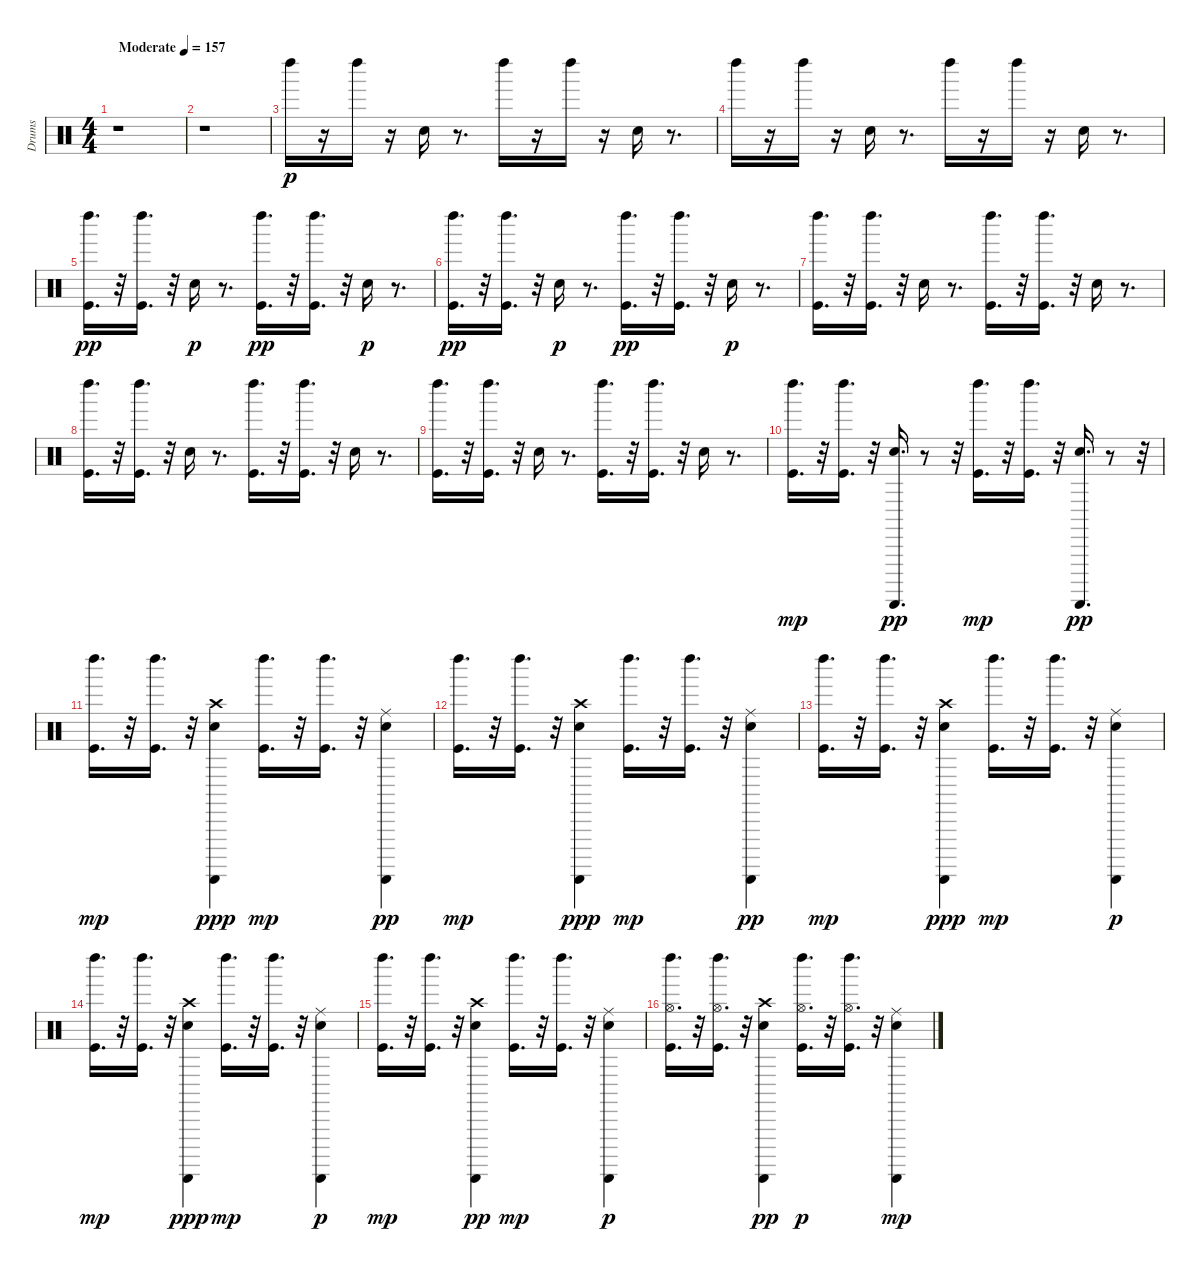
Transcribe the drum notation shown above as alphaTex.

\track ("Drums               " "Drums     ") {instrument percussion}
\staff {score}
\articulation defaults
\ts (4 4)
\tempo (157 "Moderate")
\clef neutral
\ks c
r.1{dy p} |
r.1 |
"Left Maraca (hit)".16 r.16 "Left Maraca (hit)".16 r.16 "Hand Clap (hit)".16 r.8{d} "Left Maraca (hit)".16 r.16 "Left Maraca (hit)".16 r.16 "Hand Clap (hit)".16 r.8{d} |
"Left Maraca (hit)".16 r.16 "Left Maraca (hit)".16 r.16 "Hand Clap (hit)".16 r.8{d} "Left Maraca (hit)".16 r.16 "Left Maraca (hit)".16 r.16 "Hand Clap (hit)".16 r.8{d} |
("Left Maraca (hit)" "Kick (hit)").16{d dy pp} r.32 ("Left Maraca (hit)" "Kick (hit)").16{d} r.32 "Hand Clap (hit)".16{dy p} r.8{d} ("Left Maraca (hit)" "Kick (hit)").16{d dy pp} r.32 ("Left Maraca (hit)" "Kick (hit)").16{d} r.32 "Hand Clap (hit)".16{dy p} r.8{d} |
("Left Maraca (hit)" "Kick (hit)").16{d dy pp} r.32 ("Left Maraca (hit)" "Kick (hit)").16{d} r.32 "Hand Clap (hit)".16{dy p} r.8{d} ("Left Maraca (hit)" "Kick (hit)").16{d dy pp} r.32 ("Left Maraca (hit)" "Kick (hit)").16{d} r.32 "Hand Clap (hit)".16{dy p} r.8{d} |
("Left Maraca (hit)" "Kick (hit)").16{d} r.32 ("Left Maraca (hit)" "Kick (hit)").16{d} r.32 "Hand Clap (hit)".16 r.8{d} ("Left Maraca (hit)" "Kick (hit)").16{d} r.32 ("Left Maraca (hit)" "Kick (hit)").16{d} r.32 "Hand Clap (hit)".16 r.8{d} |
("Left Maraca (hit)" "Kick (hit)").16{d} r.32 ("Left Maraca (hit)" "Kick (hit)").16{d} r.32 "Hand Clap (hit)".16 r.8{d} ("Left Maraca (hit)" "Kick (hit)").16{d} r.32 ("Left Maraca (hit)" "Kick (hit)").16{d} r.32 "Hand Clap (hit)".16 r.8{d} |
("Left Maraca (hit)" "Kick (hit)").16{d} r.32 ("Left Maraca (hit)" "Kick (hit)").16{d} r.32 "Hand Clap (hit)".16 r.8{d} ("Left Maraca (hit)" "Kick (hit)").16{d} r.32 ("Left Maraca (hit)" "Kick (hit)").16{d} r.32 "Hand Clap (hit)".16 r.8{d} |
("Left Maraca (hit)" "Kick (hit)").16{d dy mp} r.32 ("Left Maraca (hit)" "Kick (hit)").16{d} r.32 ("Hand Clap (hit)" "Guiro (scrap-return)").16{d dy pp} r.8 r.32 ("Left Maraca (hit)" "Kick (hit)").16{d dy mp} r.32 ("Left Maraca (hit)" "Kick (hit)").16{d} r.32 ("Hand Clap (hit)" "Guiro (scrap-return)").16{d dy pp} r.8 r.32 |
("Left Maraca (hit)" "Kick (hit)").16{d dy mp} r.32 ("Left Maraca (hit)" "Kick (hit)").16{d} r.32 ("Hand Clap (hit)" "Guiro (scrap-return)" "Crash high (hit)").4{dy ppp} ("Left Maraca (hit)" "Kick (hit)").16{d dy mp} r.32 ("Left Maraca (hit)" "Kick (hit)").16{d} r.32 ("Hand Clap (hit)" "Guiro (scrap-return)" "Ride (middle)").4{dy pp} |
("Left Maraca (hit)" "Kick (hit)").16{d dy mp} r.32 ("Left Maraca (hit)" "Kick (hit)").16{d} r.32 ("Hand Clap (hit)" "Guiro (scrap-return)" "Crash high (hit)").4{dy ppp} ("Left Maraca (hit)" "Kick (hit)").16{d dy mp} r.32 ("Left Maraca (hit)" "Kick (hit)").16{d} r.32 ("Hand Clap (hit)" "Guiro (scrap-return)" "Ride (middle)").4{dy pp} |
("Left Maraca (hit)" "Kick (hit)").16{d dy mp} r.32 ("Left Maraca (hit)" "Kick (hit)").16{d} r.32 ("Hand Clap (hit)" "Guiro (scrap-return)" "Crash high (hit)").4{dy ppp} ("Left Maraca (hit)" "Kick (hit)").16{d dy mp} r.32 ("Left Maraca (hit)" "Kick (hit)").16{d} r.32 ("Hand Clap (hit)" "Guiro (scrap-return)" "Ride (middle)").4{dy p} |
("Left Maraca (hit)" "Kick (hit)").16{d dy mp} r.32 ("Left Maraca (hit)" "Kick (hit)").16{d} r.32 ("Hand Clap (hit)" "Guiro (scrap-return)" "Crash high (hit)").4{dy ppp} ("Left Maraca (hit)" "Kick (hit)").16{d dy mp} r.32 ("Left Maraca (hit)" "Kick (hit)").16{d} r.32 ("Hand Clap (hit)" "Guiro (scrap-return)" "Ride (middle)").4{dy p} |
("Left Maraca (hit)" "Kick (hit)").16{d dy mp} r.32 ("Left Maraca (hit)" "Kick (hit)").16{d} r.32 ("Hand Clap (hit)" "Guiro (scrap-return)" "Crash high (hit)").4{dy pp} ("Left Maraca (hit)" "Kick (hit)").16{d dy mp} r.32 ("Left Maraca (hit)" "Kick (hit)").16{d} r.32 ("Hand Clap (hit)" "Guiro (scrap-return)" "Ride (middle)").4{dy p} |
("Left Maraca (hit)" "Kick (hit)" "Hi-Hat (open)").16{d} r.32 ("Left Maraca (hit)" "Kick (hit)" "Hi-Hat (open)").16{d} r.32 ("Hand Clap (hit)" "Guiro (scrap-return)" "Crash high (hit)").4{dy pp} ("Left Maraca (hit)" "Kick (hit)" "Hi-Hat (open)").16{d dy p} r.32 ("Left Maraca (hit)" "Kick (hit)" "Hi-Hat (open)").16{d} r.32 ("Hand Clap (hit)" "Guiro (scrap-return)" "Ride (middle)").4{dy mp}
